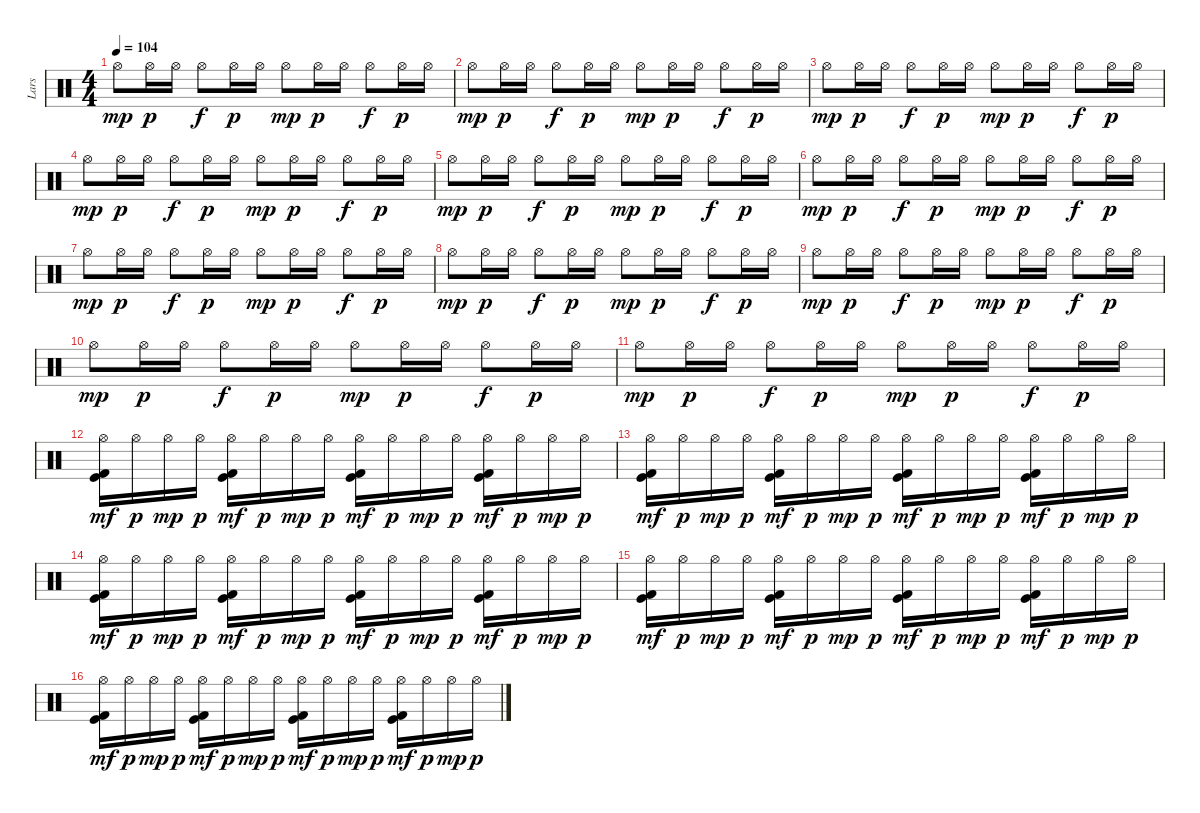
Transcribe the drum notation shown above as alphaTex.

\track ("Lars" "Lars") {instrument percussion}
\staff {score}
\articulation defaults
\ts (4 4)
\tempo 104
\clef neutral
\ks c "Hi-Hat (open)".8{dy mp} "Hi-Hat (open)".16{dy p} "Hi-Hat (open)".16 "Hi-Hat (open)".8{dy f} "Hi-Hat (open)".16{dy p} "Hi-Hat (open)".16 "Hi-Hat (open)".8{dy mp} "Hi-Hat (open)".16{dy p} "Hi-Hat (open)".16 "Hi-Hat (open)".8{dy f} "Hi-Hat (open)".16{dy p} "Hi-Hat (open)".16
|
"Hi-Hat (open)".8{dy mp} "Hi-Hat (open)".16{dy p} "Hi-Hat (open)".16 "Hi-Hat (open)".8{dy f} "Hi-Hat (open)".16{dy p} "Hi-Hat (open)".16 "Hi-Hat (open)".8{dy mp} "Hi-Hat (open)".16{dy p} "Hi-Hat (open)".16 "Hi-Hat (open)".8{dy f} "Hi-Hat (open)".16{dy p} "Hi-Hat (open)".16 |
"Hi-Hat (open)".8{dy mp} "Hi-Hat (open)".16{dy p} "Hi-Hat (open)".16 "Hi-Hat (open)".8{dy f} "Hi-Hat (open)".16{dy p} "Hi-Hat (open)".16 "Hi-Hat (open)".8{dy mp} "Hi-Hat (open)".16{dy p} "Hi-Hat (open)".16 "Hi-Hat (open)".8{dy f} "Hi-Hat (open)".16{dy p} "Hi-Hat (open)".16 |
"Hi-Hat (open)".8{dy mp} "Hi-Hat (open)".16{dy p} "Hi-Hat (open)".16 "Hi-Hat (open)".8{dy f} "Hi-Hat (open)".16{dy p} "Hi-Hat (open)".16 "Hi-Hat (open)".8{dy mp} "Hi-Hat (open)".16{dy p} "Hi-Hat (open)".16 "Hi-Hat (open)".8{dy f} "Hi-Hat (open)".16{dy p} "Hi-Hat (open)".16 |
"Hi-Hat (open)".8{dy mp} "Hi-Hat (open)".16{dy p} "Hi-Hat (open)".16 "Hi-Hat (open)".8{dy f} "Hi-Hat (open)".16{dy p} "Hi-Hat (open)".16 "Hi-Hat (open)".8{dy mp} "Hi-Hat (open)".16{dy p} "Hi-Hat (open)".16 "Hi-Hat (open)".8{dy f} "Hi-Hat (open)".16{dy p} "Hi-Hat (open)".16 |
"Hi-Hat (open)".8{dy mp} "Hi-Hat (open)".16{dy p} "Hi-Hat (open)".16 "Hi-Hat (open)".8{dy f} "Hi-Hat (open)".16{dy p} "Hi-Hat (open)".16 "Hi-Hat (open)".8{dy mp} "Hi-Hat (open)".16{dy p} "Hi-Hat (open)".16 "Hi-Hat (open)".8{dy f} "Hi-Hat (open)".16{dy p} "Hi-Hat (open)".16 |
"Hi-Hat (open)".8{dy mp} "Hi-Hat (open)".16{dy p} "Hi-Hat (open)".16 "Hi-Hat (open)".8{dy f} "Hi-Hat (open)".16{dy p} "Hi-Hat (open)".16 "Hi-Hat (open)".8{dy mp} "Hi-Hat (open)".16{dy p} "Hi-Hat (open)".16 "Hi-Hat (open)".8{dy f} "Hi-Hat (open)".16{dy p} "Hi-Hat (open)".16 |
"Hi-Hat (open)".8{dy mp} "Hi-Hat (open)".16{dy p} "Hi-Hat (open)".16 "Hi-Hat (open)".8{dy f} "Hi-Hat (open)".16{dy p} "Hi-Hat (open)".16 "Hi-Hat (open)".8{dy mp} "Hi-Hat (open)".16{dy p} "Hi-Hat (open)".16 "Hi-Hat (open)".8{dy f} "Hi-Hat (open)".16{dy p} "Hi-Hat (open)".16 |
"Hi-Hat (open)".8{dy mp} "Hi-Hat (open)".16{dy p} "Hi-Hat (open)".16 "Hi-Hat (open)".8{dy f} "Hi-Hat (open)".16{dy p} "Hi-Hat (open)".16 "Hi-Hat (open)".8{dy mp} "Hi-Hat (open)".16{dy p} "Hi-Hat (open)".16 "Hi-Hat (open)".8{dy f} "Hi-Hat (open)".16{dy p} "Hi-Hat (open)".16 |
"Hi-Hat (open)".8{dy mp} "Hi-Hat (open)".16{dy p} "Hi-Hat (open)".16 "Hi-Hat (open)".8{dy f} "Hi-Hat (open)".16{dy p} "Hi-Hat (open)".16 "Hi-Hat (open)".8{dy mp} "Hi-Hat (open)".16{dy p} "Hi-Hat (open)".16 "Hi-Hat (open)".8{dy f} "Hi-Hat (open)".16{dy p} "Hi-Hat (open)".16 |
"Hi-Hat (open)".8{dy mp} "Hi-Hat (open)".16{dy p} "Hi-Hat (open)".16 "Hi-Hat (open)".8{dy f} "Hi-Hat (open)".16{dy p} "Hi-Hat (open)".16 "Hi-Hat (open)".8{dy mp} "Hi-Hat (open)".16{dy p} "Hi-Hat (open)".16 "Hi-Hat (open)".8{dy f} "Hi-Hat (open)".16{dy p} "Hi-Hat (open)".16 |
("Hi-Hat (open)" "Kick (hit)" "Kick (hit) 2").16{dy mf} "Hi-Hat (open)".16{dy p} "Hi-Hat (open)".16{dy mp} "Hi-Hat (open)".16{dy p} ("Hi-Hat (open)" "Kick (hit)" "Kick (hit) 2").16{dy mf} "Hi-Hat (open)".16{dy p} "Hi-Hat (open)".16{dy mp} "Hi-Hat (open)".16{dy p} ("Hi-Hat (open)" "Kick (hit)" "Kick (hit) 2").16{dy mf} "Hi-Hat (open)".16{dy p} "Hi-Hat (open)".16{dy mp} "Hi-Hat (open)".16{dy p} ("Hi-Hat (open)" "Kick (hit)" "Kick (hit) 2").16{dy mf} "Hi-Hat (open)".16{dy p} "Hi-Hat (open)".16{dy mp} "Hi-Hat (open)".16{dy p} |
("Hi-Hat (open)" "Kick (hit)" "Kick (hit) 2").16{dy mf} "Hi-Hat (open)".16{dy p} "Hi-Hat (open)".16{dy mp} "Hi-Hat (open)".16{dy p} ("Hi-Hat (open)" "Kick (hit)" "Kick (hit) 2").16{dy mf} "Hi-Hat (open)".16{dy p} "Hi-Hat (open)".16{dy mp} "Hi-Hat (open)".16{dy p} ("Hi-Hat (open)" "Kick (hit)" "Kick (hit) 2").16{dy mf} "Hi-Hat (open)".16{dy p} "Hi-Hat (open)".16{dy mp} "Hi-Hat (open)".16{dy p} ("Hi-Hat (open)" "Kick (hit)" "Kick (hit) 2").16{dy mf} "Hi-Hat (open)".16{dy p} "Hi-Hat (open)".16{dy mp} "Hi-Hat (open)".16{dy p} |
("Hi-Hat (open)" "Kick (hit)" "Kick (hit) 2").16{dy mf} "Hi-Hat (open)".16{dy p} "Hi-Hat (open)".16{dy mp} "Hi-Hat (open)".16{dy p} ("Hi-Hat (open)" "Kick (hit)" "Kick (hit) 2").16{dy mf} "Hi-Hat (open)".16{dy p} "Hi-Hat (open)".16{dy mp} "Hi-Hat (open)".16{dy p} ("Hi-Hat (open)" "Kick (hit)" "Kick (hit) 2").16{dy mf} "Hi-Hat (open)".16{dy p} "Hi-Hat (open)".16{dy mp} "Hi-Hat (open)".16{dy p} ("Hi-Hat (open)" "Kick (hit)" "Kick (hit) 2").16{dy mf} "Hi-Hat (open)".16{dy p} "Hi-Hat (open)".16{dy mp} "Hi-Hat (open)".16{dy p} |
("Hi-Hat (open)" "Kick (hit)" "Kick (hit) 2").16{dy mf} "Hi-Hat (open)".16{dy p} "Hi-Hat (open)".16{dy mp} "Hi-Hat (open)".16{dy p} ("Hi-Hat (open)" "Kick (hit)" "Kick (hit) 2").16{dy mf} "Hi-Hat (open)".16{dy p} "Hi-Hat (open)".16{dy mp} "Hi-Hat (open)".16{dy p} ("Hi-Hat (open)" "Kick (hit)" "Kick (hit) 2").16{dy mf} "Hi-Hat (open)".16{dy p} "Hi-Hat (open)".16{dy mp} "Hi-Hat (open)".16{dy p} ("Hi-Hat (open)" "Kick (hit)" "Kick (hit) 2").16{dy mf} "Hi-Hat (open)".16{dy p} "Hi-Hat (open)".16{dy mp} "Hi-Hat (open)".16{dy p} |
("Hi-Hat (open)" "Kick (hit)" "Kick (hit) 2").16{dy mf} "Hi-Hat (open)".16{dy p} "Hi-Hat (open)".16{dy mp} "Hi-Hat (open)".16{dy p} ("Hi-Hat (open)" "Kick (hit)" "Kick (hit) 2").16{dy mf} "Hi-Hat (open)".16{dy p} "Hi-Hat (open)".16{dy mp} "Hi-Hat (open)".16{dy p} ("Hi-Hat (open)" "Kick (hit)" "Kick (hit) 2").16{dy mf} "Hi-Hat (open)".16{dy p} "Hi-Hat (open)".16{dy mp} "Hi-Hat (open)".16{dy p} ("Hi-Hat (open)" "Kick (hit)" "Kick (hit) 2").16{dy mf} "Hi-Hat (open)".16{dy p} "Hi-Hat (open)".16{dy mp} "Hi-Hat (open)".16{dy p}
